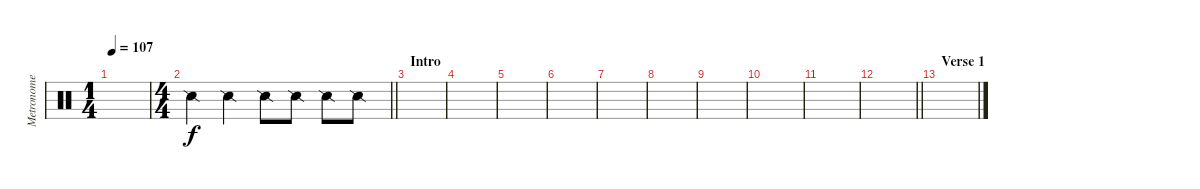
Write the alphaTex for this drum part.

\track ("Metronome" "Metronome") {instrument percussion}
\staff {score}
\articulation defaults
\ts (1 4)
\tempo 107
\clef neutral
\ks c
|
\ts (4 4)
\barLineRight lightlight "Snare (side stick) 2".4 "Snare (side stick) 2".4 "Snare (side stick) 2".8 "Snare (side stick) 2".8 "Snare (side stick) 2".8 "Snare (side stick) 2".8
|
\section ("" "Intro")
|
|
|
|
|
|
|
|
|
\barLineRight lightlight
|
\section ("" "Verse 1")
